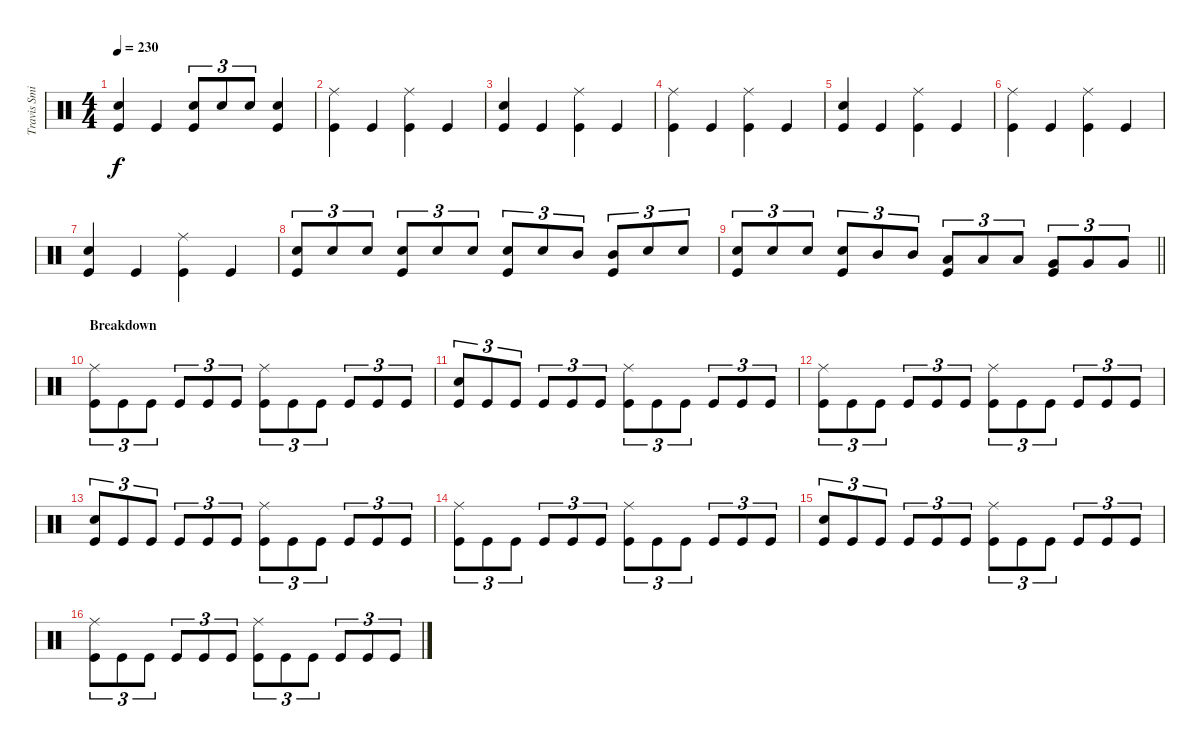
\track ("Travis Smith" "Travis Smi") {instrument percussion}
\staff {score}
\articulation defaults
\ts (4 4)
\tempo 230
\clef neutral
\ks c
("Snare (hit) 2" "Kick (hit)").4{dy f} "Kick (hit)".4 ("Snare (hit) 2" "Kick (hit)").8{tu (3 2)} "Snare (hit) 2".8{tu (3 2)} "Snare (hit) 2".8{tu (3 2)} ("Snare (hit) 2" "Kick (hit)").4 |
("Ride (middle)" "Kick (hit)").4 "Kick (hit)".4 ("Ride (middle)" "Kick (hit)").4 "Kick (hit)".4 |
("Snare (hit) 2" "Kick (hit)").4 "Kick (hit)".4 ("Ride (middle)" "Kick (hit)").4 "Kick (hit)".4 |
("Ride (middle)" "Kick (hit)").4 "Kick (hit)".4 ("Ride (middle)" "Kick (hit)").4 "Kick (hit)".4 |
("Snare (hit) 2" "Kick (hit)").4 "Kick (hit)".4 ("Ride (middle)" "Kick (hit)").4 "Kick (hit)".4 |
("Ride (middle)" "Kick (hit)").4 "Kick (hit)".4 ("Ride (middle)" "Kick (hit)").4 "Kick (hit)".4 |
("Snare (hit) 2" "Kick (hit)").4 "Kick (hit)".4 ("Ride (middle)" "Kick (hit)").4 "Kick (hit)".4 |
("Snare (hit) 2" "Kick (hit)").8{tu (3 2)} "Snare (hit) 2".8{tu (3 2)} "Snare (hit) 2".8{tu (3 2)} ("Snare (hit) 2" "Kick (hit)").8{tu (3 2)} "Snare (hit) 2".8{tu (3 2)} "Snare (hit) 2".8{tu (3 2)} ("Snare (hit) 2" "Kick (hit)").8{tu (3 2)} "Snare (hit) 2".8{tu (3 2)} "Mid Tom (hit)".8{tu (3 2)} ("Mid Tom (hit)" "Kick (hit)").8{tu (3 2)} "Snare (hit) 2".8{tu (3 2)} "Snare (hit) 2".8{tu (3 2)} |
\barLineRight lightlight
("Snare (hit) 2" "Kick (hit)").8{tu (3 2)} "Snare (hit) 2".8{tu (3 2)} "Snare (hit) 2".8{tu (3 2)} ("Snare (hit) 2" "Kick (hit)").8{tu (3 2)} "Mid Tom (hit)".8{tu (3 2)} "Mid Tom (hit)".8{tu (3 2)} ("Low Tom (hit)" "Kick (hit)").8{tu (3 2)} "Low Tom (hit)".8{tu (3 2)} "Low Tom (hit)".8{tu (3 2)} ("Very Low Tom (hit)" "Kick (hit)").8{tu (3 2)} "Very Low Tom (hit)".8{tu (3 2)} "Very Low Tom (hit)".8{tu (3 2)} |
\section ("" "Breakdown")
("Ride (middle)" "Kick (hit)").8{tu (3 2)} "Kick (hit)".8{tu (3 2)} "Kick (hit)".8{tu (3 2)} "Kick (hit)".8{tu (3 2)} "Kick (hit)".8{tu (3 2)} "Kick (hit)".8{tu (3 2)} ("Ride (middle)" "Kick (hit)").8{tu (3 2)} "Kick (hit)".8{tu (3 2)} "Kick (hit)".8{tu (3 2)} "Kick (hit)".8{tu (3 2)} "Kick (hit)".8{tu (3 2)} "Kick (hit)".8{tu (3 2)} |
("Snare (hit) 2" "Kick (hit)").8{tu (3 2)} "Kick (hit)".8{tu (3 2)} "Kick (hit)".8{tu (3 2)} "Kick (hit)".8{tu (3 2)} "Kick (hit)".8{tu (3 2)} "Kick (hit)".8{tu (3 2)} ("Ride (middle)" "Kick (hit)").8{tu (3 2)} "Kick (hit)".8{tu (3 2)} "Kick (hit)".8{tu (3 2)} "Kick (hit)".8{tu (3 2)} "Kick (hit)".8{tu (3 2)} "Kick (hit)".8{tu (3 2)} |
("Ride (middle)" "Kick (hit)").8{tu (3 2)} "Kick (hit)".8{tu (3 2)} "Kick (hit)".8{tu (3 2)} "Kick (hit)".8{tu (3 2)} "Kick (hit)".8{tu (3 2)} "Kick (hit)".8{tu (3 2)} ("Ride (middle)" "Kick (hit)").8{tu (3 2)} "Kick (hit)".8{tu (3 2)} "Kick (hit)".8{tu (3 2)} "Kick (hit)".8{tu (3 2)} "Kick (hit)".8{tu (3 2)} "Kick (hit)".8{tu (3 2)} |
("Snare (hit) 2" "Kick (hit)").8{tu (3 2)} "Kick (hit)".8{tu (3 2)} "Kick (hit)".8{tu (3 2)} "Kick (hit)".8{tu (3 2)} "Kick (hit)".8{tu (3 2)} "Kick (hit)".8{tu (3 2)} ("Ride (middle)" "Kick (hit)").8{tu (3 2)} "Kick (hit)".8{tu (3 2)} "Kick (hit)".8{tu (3 2)} "Kick (hit)".8{tu (3 2)} "Kick (hit)".8{tu (3 2)} "Kick (hit)".8{tu (3 2)} |
("Ride (middle)" "Kick (hit)").8{tu (3 2)} "Kick (hit)".8{tu (3 2)} "Kick (hit)".8{tu (3 2)} "Kick (hit)".8{tu (3 2)} "Kick (hit)".8{tu (3 2)} "Kick (hit)".8{tu (3 2)} ("Ride (middle)" "Kick (hit)").8{tu (3 2)} "Kick (hit)".8{tu (3 2)} "Kick (hit)".8{tu (3 2)} "Kick (hit)".8{tu (3 2)} "Kick (hit)".8{tu (3 2)} "Kick (hit)".8{tu (3 2)} |
("Snare (hit) 2" "Kick (hit)").8{tu (3 2)} "Kick (hit)".8{tu (3 2)} "Kick (hit)".8{tu (3 2)} "Kick (hit)".8{tu (3 2)} "Kick (hit)".8{tu (3 2)} "Kick (hit)".8{tu (3 2)} ("Ride (middle)" "Kick (hit)").8{tu (3 2)} "Kick (hit)".8{tu (3 2)} "Kick (hit)".8{tu (3 2)} "Kick (hit)".8{tu (3 2)} "Kick (hit)".8{tu (3 2)} "Kick (hit)".8{tu (3 2)} |
("Ride (middle)" "Kick (hit)").8{tu (3 2)} "Kick (hit)".8{tu (3 2)} "Kick (hit)".8{tu (3 2)} "Kick (hit)".8{tu (3 2)} "Kick (hit)".8{tu (3 2)} "Kick (hit)".8{tu (3 2)} ("Ride (middle)" "Kick (hit)").8{tu (3 2)} "Kick (hit)".8{tu (3 2)} "Kick (hit)".8{tu (3 2)} "Kick (hit)".8{tu (3 2)} "Kick (hit)".8{tu (3 2)} "Kick (hit)".8{tu (3 2)}
